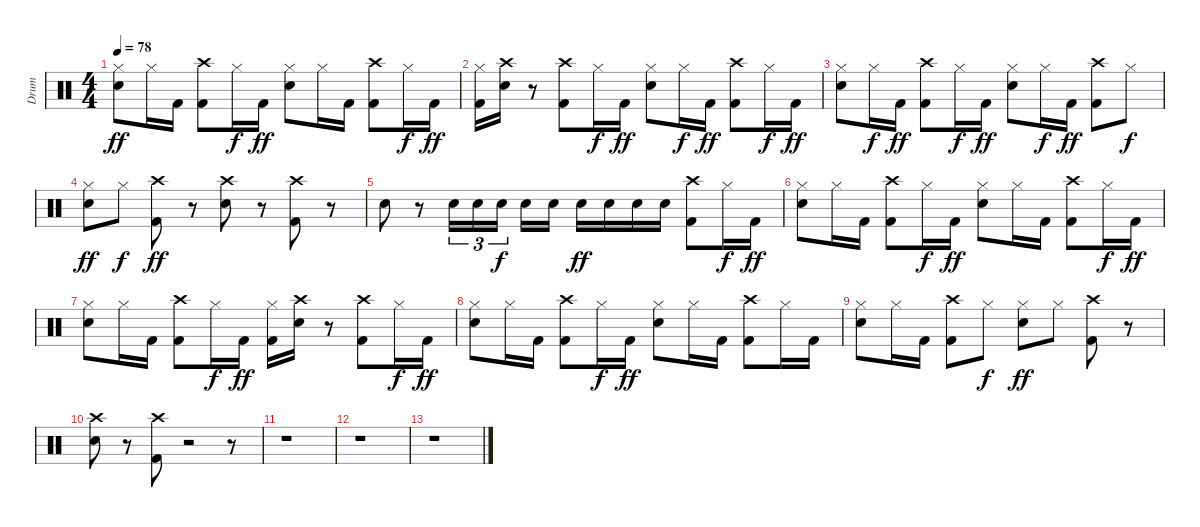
\track ("Drum" "Drum") {instrument percussion}
\staff {score}
\articulation defaults
\ts (4 4)
\tempo 78
\clef neutral
\ks c
("Snare (hit) 2" "Hi-Hat (closed)").8{dy ff} "Hi-Hat (closed)".16 "Kick (hit) 2".16 ("Kick (hit) 2" "Crash high (hit)").8 "Hi-Hat (closed)".16{dy f} "Kick (hit) 2".16{dy ff} ("Snare (hit) 2" "Hi-Hat (closed)").8 "Hi-Hat (closed)".16 "Kick (hit) 2".16 ("Kick (hit) 2" "Crash high (hit)").8 "Hi-Hat (closed)".16{dy f} "Kick (hit) 2".16{dy ff} |
("Kick (hit) 2" "Hi-Hat (closed)").16 ("Snare (hit) 2" "Crash high (hit)").16 r.8 ("Kick (hit) 2" "Crash high (hit)").8 "Hi-Hat (closed)".16{dy f} "Kick (hit) 2".16{dy ff} ("Snare (hit) 2" "Hi-Hat (closed)").8 "Hi-Hat (closed)".16{dy f} "Kick (hit) 2".16{dy ff} ("Kick (hit) 2" "Crash high (hit)").8 "Hi-Hat (closed)".16{dy f} "Kick (hit) 2".16{dy ff} |
("Snare (hit) 2" "Hi-Hat (closed)").8 "Hi-Hat (closed)".16{dy f} "Kick (hit) 2".16{dy ff} ("Kick (hit) 2" "Crash high (hit)").8 "Hi-Hat (closed)".16{dy f} "Kick (hit) 2".16{dy ff} ("Snare (hit) 2" "Hi-Hat (closed)").8 "Hi-Hat (closed)".16{dy f} "Kick (hit) 2".16{dy ff} ("Kick (hit) 2" "Crash high (hit)").8 "Hi-Hat (closed)".8{dy f} |
("Snare (hit) 2" "Hi-Hat (closed)").8{dy ff} "Hi-Hat (closed)".8{dy f} ("Kick (hit) 2" "Crash high (hit)").8{dy ff} r.8 ("Snare (hit) 2" "Crash high (hit)").8 r.8 ("Kick (hit) 2" "Crash high (hit)").8 r.8 |
"Snare (hit) 2".8 r.8 "Snare (hit) 2".16{tu (3 2)} "Snare (hit) 2".16{tu (3 2)} "Snare (hit) 2".16{tu (3 2) dy f} "Snare (hit) 2".16 "Snare (hit) 2".16 "Snare (hit) 2".16{dy ff} "Snare (hit) 2".16 "Snare (hit) 2".16 "Snare (hit) 2".16 ("Kick (hit) 2" "Crash high (hit)").8 "Hi-Hat (closed)".16{dy f} "Kick (hit) 2".16{dy ff} |
("Snare (hit) 2" "Hi-Hat (closed)").8 "Hi-Hat (closed)".16 "Kick (hit) 2".16 ("Kick (hit) 2" "Crash high (hit)").8 "Hi-Hat (closed)".16{dy f} "Kick (hit) 2".16{dy ff} ("Snare (hit) 2" "Hi-Hat (closed)").8 "Hi-Hat (closed)".16 "Kick (hit) 2".16 ("Kick (hit) 2" "Crash high (hit)").8 "Hi-Hat (closed)".16{dy f} "Kick (hit) 2".16{dy ff} |
("Snare (hit) 2" "Hi-Hat (closed)").8 "Hi-Hat (closed)".16 "Kick (hit) 2".16 ("Kick (hit) 2" "Crash high (hit)").8 "Hi-Hat (closed)".16{dy f} "Kick (hit) 2".16{dy ff} ("Kick (hit) 2" "Hi-Hat (closed)").16 ("Snare (hit) 2" "Crash high (hit)").16 r.8 ("Kick (hit) 2" "Crash high (hit)").8 "Hi-Hat (closed)".16{dy f} "Kick (hit) 2".16{dy ff} |
("Snare (hit) 2" "Hi-Hat (closed)").8 "Hi-Hat (closed)".16 "Kick (hit) 2".16 ("Kick (hit) 2" "Crash high (hit)").8 "Hi-Hat (closed)".16{dy f} "Kick (hit) 2".16{dy ff} ("Snare (hit) 2" "Hi-Hat (closed)").8 "Hi-Hat (closed)".16 "Kick (hit) 2".16 ("Kick (hit) 2" "Crash high (hit)").8 "Hi-Hat (closed)".16 "Kick (hit) 2".16 |
("Snare (hit) 2" "Hi-Hat (closed)").8 "Hi-Hat (closed)".16 "Kick (hit) 2".16 ("Kick (hit) 2" "Crash high (hit)").8 "Hi-Hat (closed)".8{dy f} ("Snare (hit) 2" "Hi-Hat (closed)").8{dy ff} "Hi-Hat (closed)".8 ("Kick (hit) 2" "Crash high (hit)").8 r.8 |
("Snare (hit) 2" "Crash high (hit)").8 r.8 ("Kick (hit) 2" "Crash high (hit)").8 r.2 r.8 |
r.1 |
r.1 |
r.1
